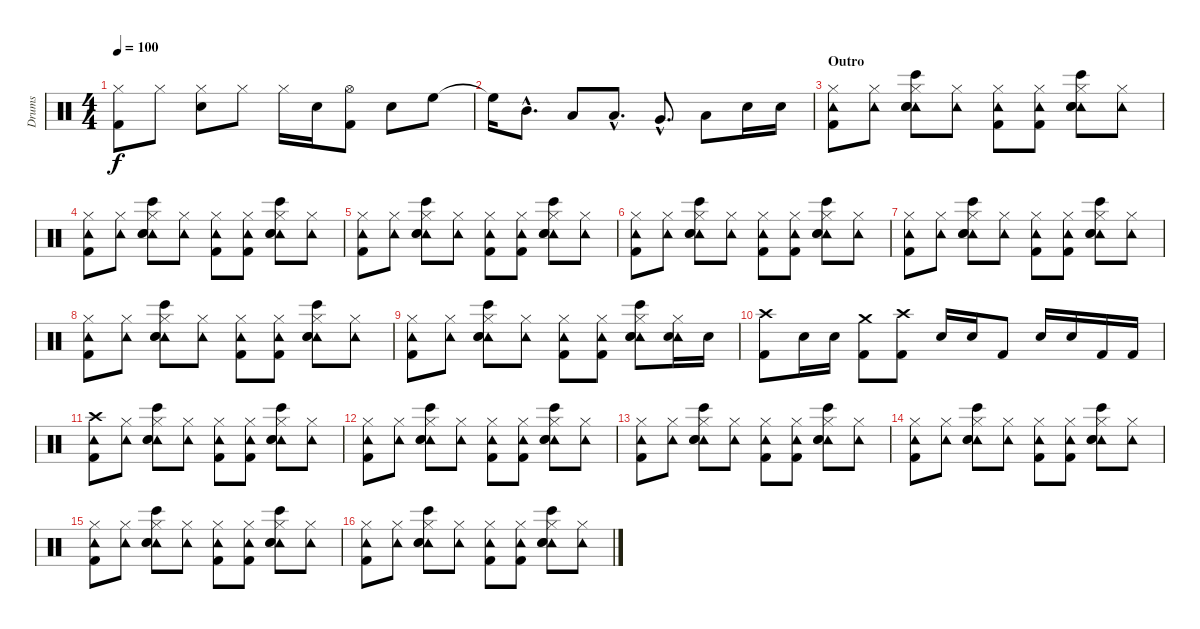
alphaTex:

\track ("Drums" "Drums") {instrument percussion}
\staff {score}
\articulation defaults
\ts (4 4)
\tempo 100
\clef neutral
\ks c
("Hi-Hat (closed)" "Kick (hit) 2").8{dy f} "Hi-Hat (closed)".8 ("Hi-Hat (closed)" "Snare (hit) 2").8 "Hi-Hat (closed)".8 "Hi-Hat (closed)".16 "Snare (hit) 2".16 ("Hi-Hat (open)" "Kick (hit) 2").8 "Snare (hit) 2".8 "High Floor Tom (hit)".8{balance 0} |
"High Floor Tom (hit)"{t}.16{balance 15} "Mid Tom (hit)"{hac}.8{d} "Low Tom (hit)".8 "Low Tom (hit)"{hac}.8{d} "Very Low Tom (hit)"{hac}.8{d} "Low Floor Tom (hit)".8 "Snare (hit) 2".16 "Snare (hit) 2".16 |
\section ("" "Outro")
("Hi-Hat (closed)" "Tambourine (hit)" "Kick (hit) 2").8{balance 8} ("Hi-Hat (closed)" "Tambourine (hit)").8 ("Hi-Hat (closed)" "Tambourine (hit)" "Snare (hit) 2" "Hand Clap (hit)" "Bongo High (hit)").8 ("Hi-Hat (closed)" "Tambourine (hit)").8 ("Hi-Hat (closed)" "Tambourine (hit)" "Kick (hit) 2").8 ("Hi-Hat (closed)" "Tambourine (hit)" "Kick (hit) 2").8 ("Hi-Hat (closed)" "Tambourine (hit)" "Snare (hit) 2" "Hand Clap (hit)" "Bongo High (hit)").8 ("Hi-Hat (closed)" "Tambourine (hit)").8 |
("Hi-Hat (closed)" "Tambourine (hit)" "Kick (hit) 2").8{balance 8} ("Hi-Hat (closed)" "Tambourine (hit)").8 ("Hi-Hat (closed)" "Tambourine (hit)" "Snare (hit) 2" "Hand Clap (hit)" "Bongo High (hit)").8 ("Hi-Hat (closed)" "Tambourine (hit)").8 ("Hi-Hat (closed)" "Tambourine (hit)" "Kick (hit) 2").8 ("Hi-Hat (closed)" "Tambourine (hit)" "Kick (hit) 2").8 ("Hi-Hat (closed)" "Tambourine (hit)" "Snare (hit) 2" "Hand Clap (hit)" "Bongo High (hit)").8 ("Hi-Hat (closed)" "Tambourine (hit)").8 |
("Hi-Hat (closed)" "Tambourine (hit)" "Kick (hit) 2").8{balance 8} ("Hi-Hat (closed)" "Tambourine (hit)").8 ("Hi-Hat (closed)" "Tambourine (hit)" "Snare (hit) 2" "Hand Clap (hit)" "Bongo High (hit)").8 ("Hi-Hat (closed)" "Tambourine (hit)").8 ("Hi-Hat (closed)" "Tambourine (hit)" "Kick (hit) 2").8 ("Hi-Hat (closed)" "Tambourine (hit)" "Kick (hit) 2").8 ("Hi-Hat (closed)" "Tambourine (hit)" "Snare (hit) 2" "Hand Clap (hit)" "Bongo High (hit)").8 ("Hi-Hat (closed)" "Tambourine (hit)").8 |
("Hi-Hat (closed)" "Tambourine (hit)" "Kick (hit) 2").8{balance 8} ("Hi-Hat (closed)" "Tambourine (hit)").8 ("Hi-Hat (closed)" "Tambourine (hit)" "Snare (hit) 2" "Hand Clap (hit)" "Bongo High (hit)").8 ("Hi-Hat (closed)" "Tambourine (hit)").8 ("Hi-Hat (closed)" "Tambourine (hit)" "Kick (hit) 2").8 ("Hi-Hat (closed)" "Tambourine (hit)" "Kick (hit) 2").8 ("Hi-Hat (closed)" "Tambourine (hit)" "Snare (hit) 2" "Hand Clap (hit)" "Bongo High (hit)").8 ("Hi-Hat (closed)" "Tambourine (hit)").8 |
("Hi-Hat (closed)" "Tambourine (hit)" "Kick (hit) 2").8{balance 8} ("Hi-Hat (closed)" "Tambourine (hit)").8 ("Hi-Hat (closed)" "Tambourine (hit)" "Snare (hit) 2" "Hand Clap (hit)" "Bongo High (hit)").8 ("Hi-Hat (closed)" "Tambourine (hit)").8 ("Hi-Hat (closed)" "Tambourine (hit)" "Kick (hit) 2").8 ("Hi-Hat (closed)" "Tambourine (hit)" "Kick (hit) 2").8 ("Hi-Hat (closed)" "Tambourine (hit)" "Snare (hit) 2" "Hand Clap (hit)" "Bongo High (hit)").8 ("Hi-Hat (closed)" "Tambourine (hit)").8 |
("Hi-Hat (closed)" "Tambourine (hit)" "Kick (hit) 2").8{balance 8} ("Hi-Hat (closed)" "Tambourine (hit)").8 ("Hi-Hat (closed)" "Tambourine (hit)" "Snare (hit) 2" "Hand Clap (hit)" "Bongo High (hit)").8 ("Hi-Hat (closed)" "Tambourine (hit)").8 ("Hi-Hat (closed)" "Tambourine (hit)" "Kick (hit) 2").8 ("Hi-Hat (closed)" "Tambourine (hit)" "Kick (hit) 2").8 ("Hi-Hat (closed)" "Tambourine (hit)" "Snare (hit) 2" "Hand Clap (hit)" "Bongo High (hit)").8 ("Hi-Hat (closed)" "Tambourine (hit)").8 |
("Hi-Hat (closed)" "Tambourine (hit)" "Kick (hit) 2").8{balance 8} ("Hi-Hat (closed)" "Tambourine (hit)").8 ("Hi-Hat (closed)" "Tambourine (hit)" "Snare (hit) 2" "Hand Clap (hit)" "Bongo High (hit)").8 ("Hi-Hat (closed)" "Tambourine (hit)").8 ("Hi-Hat (closed)" "Tambourine (hit)" "Kick (hit) 2").8 ("Hi-Hat (closed)" "Tambourine (hit)" "Kick (hit) 2").8 ("Hi-Hat (closed)" "Tambourine (hit)" "Snare (hit) 2" "Hand Clap (hit)" "Bongo High (hit)").8 ("Hi-Hat (closed)" "Tambourine (hit)" "Snare (hit) 2").16 "Snare (hit) 2".16 |
("Crash high (hit)" "Kick (hit) 2").8{balance 8} "Snare (hit) 2".16 "Snare (hit) 2".16 ("Crash medium (hit)" "Kick (hit) 2").8 ("Crash high (hit)" "Kick (hit) 2").8 "Snare (hit) 2".16 "Snare (hit) 2".16 "Kick (hit) 2".8 "Snare (hit) 2".16 "Snare (hit) 2".16 "Kick (hit) 2".16 "Kick (hit) 2".16 |
("Crash high (hit)" "Tambourine (hit)" "Kick (hit) 2").8{balance 8} ("Hi-Hat (closed)" "Tambourine (hit)").8 ("Hi-Hat (closed)" "Tambourine (hit)" "Snare (hit) 2" "Hand Clap (hit)" "Bongo High (hit)").8 ("Hi-Hat (closed)" "Tambourine (hit)").8 ("Hi-Hat (closed)" "Tambourine (hit)" "Kick (hit) 2").8 ("Hi-Hat (closed)" "Tambourine (hit)" "Kick (hit) 2").8 ("Hi-Hat (closed)" "Tambourine (hit)" "Snare (hit) 2" "Hand Clap (hit)" "Bongo High (hit)").8 ("Hi-Hat (closed)" "Tambourine (hit)").8 |
("Hi-Hat (closed)" "Tambourine (hit)" "Kick (hit) 2").8{balance 8} ("Hi-Hat (closed)" "Tambourine (hit)").8 ("Hi-Hat (closed)" "Tambourine (hit)" "Snare (hit) 2" "Hand Clap (hit)" "Bongo High (hit)").8 ("Hi-Hat (closed)" "Tambourine (hit)").8 ("Hi-Hat (closed)" "Tambourine (hit)" "Kick (hit) 2").8 ("Hi-Hat (closed)" "Tambourine (hit)" "Kick (hit) 2").8 ("Hi-Hat (closed)" "Tambourine (hit)" "Snare (hit) 2" "Hand Clap (hit)" "Bongo High (hit)").8 ("Hi-Hat (closed)" "Tambourine (hit)").8 |
("Hi-Hat (closed)" "Tambourine (hit)" "Kick (hit) 2").8{balance 8} ("Hi-Hat (closed)" "Tambourine (hit)").8 ("Hi-Hat (closed)" "Tambourine (hit)" "Snare (hit) 2" "Hand Clap (hit)" "Bongo High (hit)").8 ("Hi-Hat (closed)" "Tambourine (hit)").8 ("Hi-Hat (closed)" "Tambourine (hit)" "Kick (hit) 2").8 ("Hi-Hat (closed)" "Tambourine (hit)" "Kick (hit) 2").8 ("Hi-Hat (closed)" "Tambourine (hit)" "Snare (hit) 2" "Hand Clap (hit)" "Bongo High (hit)").8 ("Hi-Hat (closed)" "Tambourine (hit)").8 |
("Hi-Hat (closed)" "Tambourine (hit)" "Kick (hit) 2").8{balance 8} ("Hi-Hat (closed)" "Tambourine (hit)").8 ("Hi-Hat (closed)" "Tambourine (hit)" "Snare (hit) 2" "Hand Clap (hit)" "Bongo High (hit)").8 ("Hi-Hat (closed)" "Tambourine (hit)").8 ("Hi-Hat (closed)" "Tambourine (hit)" "Kick (hit) 2").8 ("Hi-Hat (closed)" "Tambourine (hit)" "Kick (hit) 2").8 ("Hi-Hat (closed)" "Tambourine (hit)" "Snare (hit) 2" "Hand Clap (hit)" "Bongo High (hit)").8 ("Hi-Hat (closed)" "Tambourine (hit)").8 |
("Hi-Hat (closed)" "Tambourine (hit)" "Kick (hit) 2").8{balance 8} ("Hi-Hat (closed)" "Tambourine (hit)").8 ("Hi-Hat (closed)" "Tambourine (hit)" "Snare (hit) 2" "Hand Clap (hit)" "Bongo High (hit)").8 ("Hi-Hat (closed)" "Tambourine (hit)").8 ("Hi-Hat (closed)" "Tambourine (hit)" "Kick (hit) 2").8 ("Hi-Hat (closed)" "Tambourine (hit)" "Kick (hit) 2").8 ("Hi-Hat (closed)" "Tambourine (hit)" "Snare (hit) 2" "Hand Clap (hit)" "Bongo High (hit)").8 ("Hi-Hat (closed)" "Tambourine (hit)").8 |
("Hi-Hat (closed)" "Tambourine (hit)" "Kick (hit) 2").8{balance 8} ("Hi-Hat (closed)" "Tambourine (hit)").8 ("Hi-Hat (closed)" "Tambourine (hit)" "Snare (hit) 2" "Hand Clap (hit)" "Bongo High (hit)").8 ("Hi-Hat (closed)" "Tambourine (hit)").8 ("Hi-Hat (closed)" "Tambourine (hit)" "Kick (hit) 2").8 ("Hi-Hat (closed)" "Tambourine (hit)" "Kick (hit) 2").8 ("Hi-Hat (closed)" "Tambourine (hit)" "Snare (hit) 2" "Hand Clap (hit)" "Bongo High (hit)").8 ("Hi-Hat (closed)" "Tambourine (hit)").8
